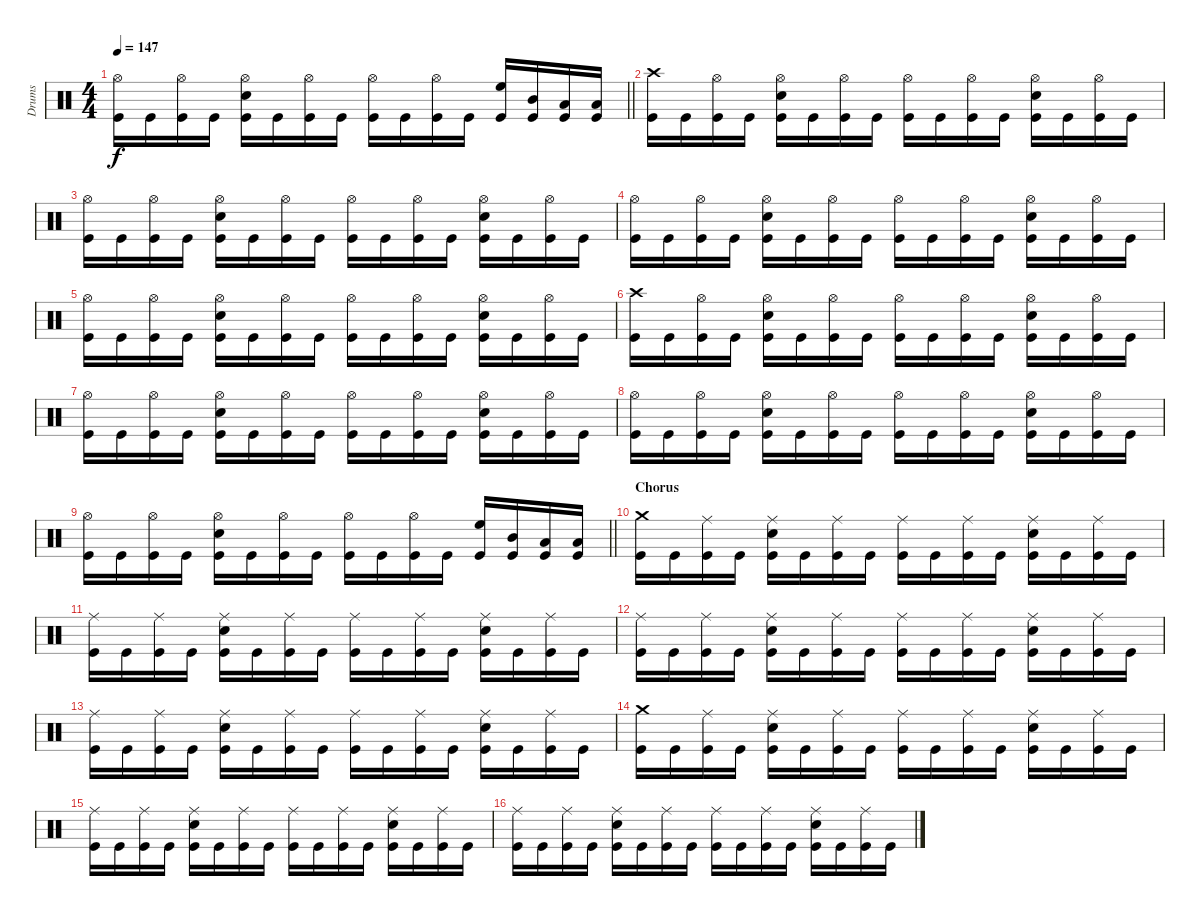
\track ("Drums" "Drums") {instrument percussion}
\staff {score}
\articulation defaults
\ts (4 4)
\tempo 147
\clef neutral
\barLineRight lightlight
\ks c
("Hi-Hat (open)" "Kick (hit)").16{dy f} "Kick (hit)".16 ("Hi-Hat (open)" "Kick (hit)").16 "Kick (hit)".16 ("Electric Snare (hit)" "Hi-Hat (open)" "Kick (hit)").16 "Kick (hit)".16 ("Hi-Hat (open)" "Kick (hit)").16 "Kick (hit)".16 ("Hi-Hat (open)" "Kick (hit)").16 "Kick (hit)".16 ("Hi-Hat (open)" "Kick (hit)").16 "Kick (hit)".16 ("High Floor Tom (hit)" "Kick (hit)").16 ("Mid Tom (hit)" "Kick (hit)").16 ("Low Tom (hit)" "Kick (hit)").16 ("Low Floor Tom (hit)" "Kick (hit)").16 |
("Crash high (hit)" "Kick (hit)").16 "Kick (hit)".16 ("Hi-Hat (open)" "Kick (hit)").16 "Kick (hit)".16 ("Electric Snare (hit)" "Hi-Hat (open)" "Kick (hit)").16 "Kick (hit)".16 ("Hi-Hat (open)" "Kick (hit)").16 "Kick (hit)".16 ("Hi-Hat (open)" "Kick (hit)").16 "Kick (hit)".16 ("Hi-Hat (open)" "Kick (hit)").16 "Kick (hit)".16 ("Electric Snare (hit)" "Hi-Hat (open)" "Kick (hit)").16 "Kick (hit)".16 ("Hi-Hat (open)" "Kick (hit)").16 "Kick (hit)".16 |
("Hi-Hat (open)" "Kick (hit)").16 "Kick (hit)".16 ("Hi-Hat (open)" "Kick (hit)").16 "Kick (hit)".16 ("Electric Snare (hit)" "Hi-Hat (open)" "Kick (hit)").16 "Kick (hit)".16 ("Hi-Hat (open)" "Kick (hit)").16 "Kick (hit)".16 ("Hi-Hat (open)" "Kick (hit)").16 "Kick (hit)".16 ("Hi-Hat (open)" "Kick (hit)").16 "Kick (hit)".16 ("Electric Snare (hit)" "Hi-Hat (open)" "Kick (hit)").16 "Kick (hit)".16 ("Hi-Hat (open)" "Kick (hit)").16 "Kick (hit)".16 |
("Hi-Hat (open)" "Kick (hit)").16 "Kick (hit)".16 ("Hi-Hat (open)" "Kick (hit)").16 "Kick (hit)".16 ("Electric Snare (hit)" "Hi-Hat (open)" "Kick (hit)").16 "Kick (hit)".16 ("Hi-Hat (open)" "Kick (hit)").16 "Kick (hit)".16 ("Hi-Hat (open)" "Kick (hit)").16 "Kick (hit)".16 ("Hi-Hat (open)" "Kick (hit)").16 "Kick (hit)".16 ("Electric Snare (hit)" "Hi-Hat (open)" "Kick (hit)").16 "Kick (hit)".16 ("Hi-Hat (open)" "Kick (hit)").16 "Kick (hit)".16 |
("Hi-Hat (open)" "Kick (hit)").16 "Kick (hit)".16 ("Hi-Hat (open)" "Kick (hit)").16 "Kick (hit)".16 ("Electric Snare (hit)" "Hi-Hat (open)" "Kick (hit)").16 "Kick (hit)".16 ("Hi-Hat (open)" "Kick (hit)").16 "Kick (hit)".16 ("Hi-Hat (open)" "Kick (hit)").16 "Kick (hit)".16 ("Hi-Hat (open)" "Kick (hit)").16 "Kick (hit)".16 ("Electric Snare (hit)" "Hi-Hat (open)" "Kick (hit)").16 "Kick (hit)".16 ("Hi-Hat (open)" "Kick (hit)").16 "Kick (hit)".16 |
("Crash high (hit)" "Kick (hit)").16 "Kick (hit)".16 ("Hi-Hat (open)" "Kick (hit)").16 "Kick (hit)".16 ("Electric Snare (hit)" "Hi-Hat (open)" "Kick (hit)").16 "Kick (hit)".16 ("Hi-Hat (open)" "Kick (hit)").16 "Kick (hit)".16 ("Hi-Hat (open)" "Kick (hit)").16 "Kick (hit)".16 ("Hi-Hat (open)" "Kick (hit)").16 "Kick (hit)".16 ("Electric Snare (hit)" "Hi-Hat (open)" "Kick (hit)").16 "Kick (hit)".16 ("Hi-Hat (open)" "Kick (hit)").16 "Kick (hit)".16 |
("Hi-Hat (open)" "Kick (hit)").16 "Kick (hit)".16 ("Hi-Hat (open)" "Kick (hit)").16 "Kick (hit)".16 ("Electric Snare (hit)" "Hi-Hat (open)" "Kick (hit)").16 "Kick (hit)".16 ("Hi-Hat (open)" "Kick (hit)").16 "Kick (hit)".16 ("Hi-Hat (open)" "Kick (hit)").16 "Kick (hit)".16 ("Hi-Hat (open)" "Kick (hit)").16 "Kick (hit)".16 ("Electric Snare (hit)" "Hi-Hat (open)" "Kick (hit)").16 "Kick (hit)".16 ("Hi-Hat (open)" "Kick (hit)").16 "Kick (hit)".16 |
("Hi-Hat (open)" "Kick (hit)").16 "Kick (hit)".16 ("Hi-Hat (open)" "Kick (hit)").16 "Kick (hit)".16 ("Electric Snare (hit)" "Hi-Hat (open)" "Kick (hit)").16 "Kick (hit)".16 ("Hi-Hat (open)" "Kick (hit)").16 "Kick (hit)".16 ("Hi-Hat (open)" "Kick (hit)").16 "Kick (hit)".16 ("Hi-Hat (open)" "Kick (hit)").16 "Kick (hit)".16 ("Electric Snare (hit)" "Hi-Hat (open)" "Kick (hit)").16 "Kick (hit)".16 ("Hi-Hat (open)" "Kick (hit)").16 "Kick (hit)".16 |
\barLineRight lightlight
("Hi-Hat (open)" "Kick (hit)").16 "Kick (hit)".16 ("Hi-Hat (open)" "Kick (hit)").16 "Kick (hit)".16 ("Electric Snare (hit)" "Hi-Hat (open)" "Kick (hit)").16 "Kick (hit)".16 ("Hi-Hat (open)" "Kick (hit)").16 "Kick (hit)".16 ("Hi-Hat (open)" "Kick (hit)").16 "Kick (hit)".16 ("Hi-Hat (open)" "Kick (hit)").16 "Kick (hit)".16 ("High Floor Tom (hit)" "Kick (hit)").16 ("Mid Tom (hit)" "Kick (hit)").16 ("Low Tom (hit)" "Kick (hit)").16 ("Low Floor Tom (hit)" "Kick (hit)").16 |
\section ("" "Chorus")
("Crash medium (hit)" "Kick (hit)").16 "Kick (hit)".16 ("Ride (middle)" "Kick (hit)").16 "Kick (hit)".16 ("Electric Snare (hit)" "Ride (middle)" "Kick (hit)").16 "Kick (hit)".16 ("Ride (middle)" "Kick (hit)").16 "Kick (hit)".16 ("Ride (middle)" "Kick (hit)").16 "Kick (hit)".16 ("Ride (middle)" "Kick (hit)").16 "Kick (hit)".16 ("Electric Snare (hit)" "Ride (middle)" "Kick (hit)").16 "Kick (hit)".16 ("Ride (middle)" "Kick (hit)").16 "Kick (hit)".16 |
("Ride (middle)" "Kick (hit)").16 "Kick (hit)".16 ("Ride (middle)" "Kick (hit)").16 "Kick (hit)".16 ("Electric Snare (hit)" "Ride (middle)" "Kick (hit)").16 "Kick (hit)".16 ("Ride (middle)" "Kick (hit)").16 "Kick (hit)".16 ("Ride (middle)" "Kick (hit)").16 "Kick (hit)".16 ("Ride (middle)" "Kick (hit)").16 "Kick (hit)".16 ("Electric Snare (hit)" "Ride (middle)" "Kick (hit)").16 "Kick (hit)".16 ("Ride (middle)" "Kick (hit)").16 "Kick (hit)".16 |
("Ride (middle)" "Kick (hit)").16 "Kick (hit)".16 ("Ride (middle)" "Kick (hit)").16 "Kick (hit)".16 ("Electric Snare (hit)" "Ride (middle)" "Kick (hit)").16 "Kick (hit)".16 ("Ride (middle)" "Kick (hit)").16 "Kick (hit)".16 ("Ride (middle)" "Kick (hit)").16 "Kick (hit)".16 ("Ride (middle)" "Kick (hit)").16 "Kick (hit)".16 ("Electric Snare (hit)" "Ride (middle)" "Kick (hit)").16 "Kick (hit)".16 ("Ride (middle)" "Kick (hit)").16 "Kick (hit)".16 |
("Ride (middle)" "Kick (hit)").16 "Kick (hit)".16 ("Ride (middle)" "Kick (hit)").16 "Kick (hit)".16 ("Electric Snare (hit)" "Ride (middle)" "Kick (hit)").16 "Kick (hit)".16 ("Ride (middle)" "Kick (hit)").16 "Kick (hit)".16 ("Ride (middle)" "Kick (hit)").16 "Kick (hit)".16 ("Ride (middle)" "Kick (hit)").16 "Kick (hit)".16 ("Electric Snare (hit)" "Ride (middle)" "Kick (hit)").16 "Kick (hit)".16 ("Ride (middle)" "Kick (hit)").16 "Kick (hit)".16 |
("Crash medium (hit)" "Kick (hit)").16 "Kick (hit)".16 ("Ride (middle)" "Kick (hit)").16 "Kick (hit)".16 ("Electric Snare (hit)" "Ride (middle)" "Kick (hit)").16 "Kick (hit)".16 ("Ride (middle)" "Kick (hit)").16 "Kick (hit)".16 ("Ride (middle)" "Kick (hit)").16 "Kick (hit)".16 ("Ride (middle)" "Kick (hit)").16 "Kick (hit)".16 ("Electric Snare (hit)" "Ride (middle)" "Kick (hit)").16 "Kick (hit)".16 ("Ride (middle)" "Kick (hit)").16 "Kick (hit)".16 |
("Ride (middle)" "Kick (hit)").16 "Kick (hit)".16 ("Ride (middle)" "Kick (hit)").16 "Kick (hit)".16 ("Electric Snare (hit)" "Ride (middle)" "Kick (hit)").16 "Kick (hit)".16 ("Ride (middle)" "Kick (hit)").16 "Kick (hit)".16 ("Ride (middle)" "Kick (hit)").16 "Kick (hit)".16 ("Ride (middle)" "Kick (hit)").16 "Kick (hit)".16 ("Electric Snare (hit)" "Ride (middle)" "Kick (hit)").16 "Kick (hit)".16 ("Ride (middle)" "Kick (hit)").16 "Kick (hit)".16 |
("Ride (middle)" "Kick (hit)").16 "Kick (hit)".16 ("Ride (middle)" "Kick (hit)").16 "Kick (hit)".16 ("Electric Snare (hit)" "Ride (middle)" "Kick (hit)").16 "Kick (hit)".16 ("Ride (middle)" "Kick (hit)").16 "Kick (hit)".16 ("Ride (middle)" "Kick (hit)").16 "Kick (hit)".16 ("Ride (middle)" "Kick (hit)").16 "Kick (hit)".16 ("Electric Snare (hit)" "Ride (middle)" "Kick (hit)").16 "Kick (hit)".16 ("Ride (middle)" "Kick (hit)").16 "Kick (hit)".16
